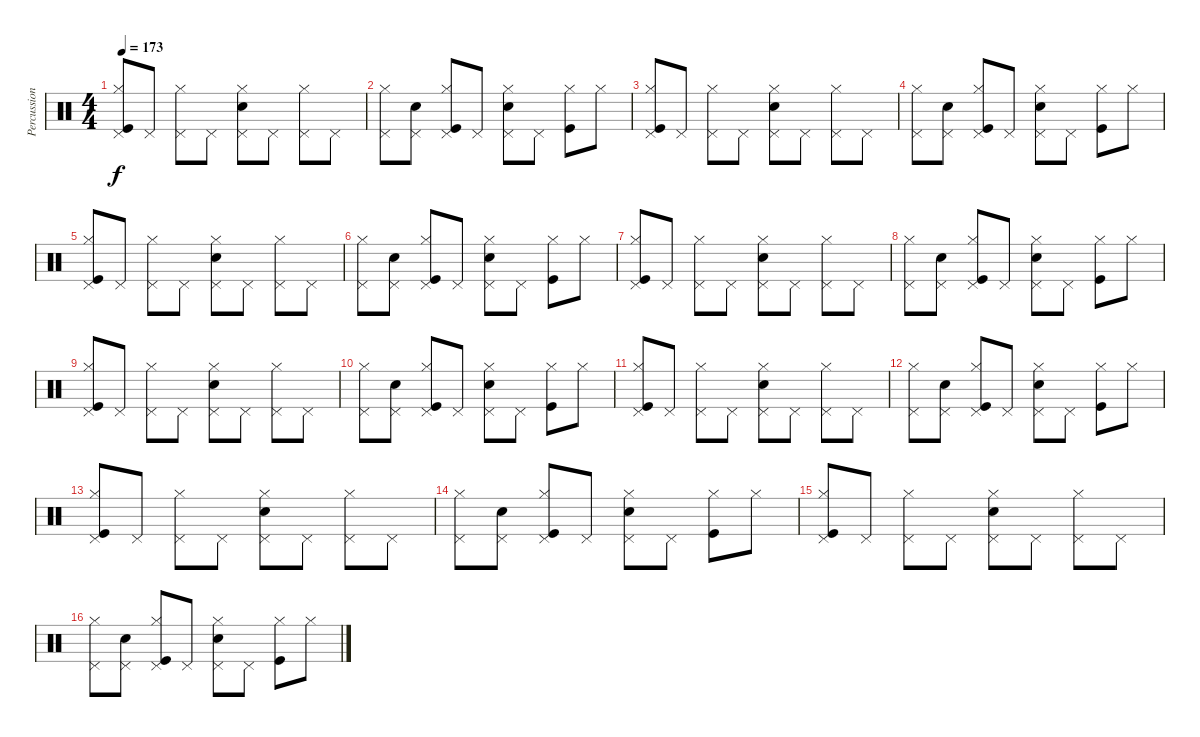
\track ("Percussion" "Percussion") {instrument percussion}
\staff {score}
\articulation defaults
\ts (4 4)
\tempo 173
\clef neutral
\ks c
("Kick (hit)" "Hi-Hat (closed)" "Pedal Hi-Hat (hit)").8{dy f} "Pedal Hi-Hat (hit)".8 ("Hi-Hat (closed)" "Pedal Hi-Hat (hit)").8 "Pedal Hi-Hat (hit)".8 ("Snare (hit) 2" "Hi-Hat (closed)" "Pedal Hi-Hat (hit)").8 "Pedal Hi-Hat (hit)".8 ("Hi-Hat (closed)" "Pedal Hi-Hat (hit)").8 "Pedal Hi-Hat (hit)".8 |
("Hi-Hat (closed)" "Pedal Hi-Hat (hit)").8 ("Snare (hit) 2" "Pedal Hi-Hat (hit)").8 ("Kick (hit)" "Hi-Hat (closed)" "Pedal Hi-Hat (hit)").8 "Pedal Hi-Hat (hit)".8 ("Snare (hit) 2" "Hi-Hat (closed)" "Pedal Hi-Hat (hit)").8 "Pedal Hi-Hat (hit)".8 ("Kick (hit)" "Hi-Hat (closed)").8 "Hi-Hat (closed)".8 |
("Kick (hit)" "Hi-Hat (closed)" "Pedal Hi-Hat (hit)").8 "Pedal Hi-Hat (hit)".8 ("Hi-Hat (closed)" "Pedal Hi-Hat (hit)").8 "Pedal Hi-Hat (hit)".8 ("Snare (hit) 2" "Hi-Hat (closed)" "Pedal Hi-Hat (hit)").8 "Pedal Hi-Hat (hit)".8 ("Hi-Hat (closed)" "Pedal Hi-Hat (hit)").8 "Pedal Hi-Hat (hit)".8 |
("Hi-Hat (closed)" "Pedal Hi-Hat (hit)").8 ("Snare (hit) 2" "Pedal Hi-Hat (hit)").8 ("Kick (hit)" "Hi-Hat (closed)" "Pedal Hi-Hat (hit)").8 "Pedal Hi-Hat (hit)".8 ("Snare (hit) 2" "Hi-Hat (closed)" "Pedal Hi-Hat (hit)").8 "Pedal Hi-Hat (hit)".8 ("Kick (hit)" "Hi-Hat (closed)").8 "Hi-Hat (closed)".8 |
("Kick (hit)" "Hi-Hat (closed)" "Pedal Hi-Hat (hit)").8 "Pedal Hi-Hat (hit)".8 ("Hi-Hat (closed)" "Pedal Hi-Hat (hit)").8 "Pedal Hi-Hat (hit)".8 ("Snare (hit) 2" "Hi-Hat (closed)" "Pedal Hi-Hat (hit)").8 "Pedal Hi-Hat (hit)".8 ("Hi-Hat (closed)" "Pedal Hi-Hat (hit)").8 "Pedal Hi-Hat (hit)".8 |
("Hi-Hat (closed)" "Pedal Hi-Hat (hit)").8 ("Snare (hit) 2" "Pedal Hi-Hat (hit)").8 ("Kick (hit)" "Hi-Hat (closed)" "Pedal Hi-Hat (hit)").8 "Pedal Hi-Hat (hit)".8 ("Snare (hit) 2" "Hi-Hat (closed)" "Pedal Hi-Hat (hit)").8 "Pedal Hi-Hat (hit)".8 ("Kick (hit)" "Hi-Hat (closed)").8 "Hi-Hat (closed)".8 |
("Kick (hit)" "Hi-Hat (closed)" "Pedal Hi-Hat (hit)").8 "Pedal Hi-Hat (hit)".8 ("Hi-Hat (closed)" "Pedal Hi-Hat (hit)").8 "Pedal Hi-Hat (hit)".8 ("Snare (hit) 2" "Hi-Hat (closed)" "Pedal Hi-Hat (hit)").8 "Pedal Hi-Hat (hit)".8 ("Hi-Hat (closed)" "Pedal Hi-Hat (hit)").8 "Pedal Hi-Hat (hit)".8 |
("Hi-Hat (closed)" "Pedal Hi-Hat (hit)").8 ("Snare (hit) 2" "Pedal Hi-Hat (hit)").8 ("Kick (hit)" "Hi-Hat (closed)" "Pedal Hi-Hat (hit)").8 "Pedal Hi-Hat (hit)".8 ("Snare (hit) 2" "Hi-Hat (closed)" "Pedal Hi-Hat (hit)").8 "Pedal Hi-Hat (hit)".8 ("Kick (hit)" "Hi-Hat (closed)").8 "Hi-Hat (closed)".8 |
("Kick (hit)" "Hi-Hat (closed)" "Pedal Hi-Hat (hit)").8 "Pedal Hi-Hat (hit)".8 ("Hi-Hat (closed)" "Pedal Hi-Hat (hit)").8 "Pedal Hi-Hat (hit)".8 ("Snare (hit) 2" "Hi-Hat (closed)" "Pedal Hi-Hat (hit)").8 "Pedal Hi-Hat (hit)".8 ("Hi-Hat (closed)" "Pedal Hi-Hat (hit)").8 "Pedal Hi-Hat (hit)".8 |
("Hi-Hat (closed)" "Pedal Hi-Hat (hit)").8 ("Snare (hit) 2" "Pedal Hi-Hat (hit)").8 ("Kick (hit)" "Hi-Hat (closed)" "Pedal Hi-Hat (hit)").8 "Pedal Hi-Hat (hit)".8 ("Snare (hit) 2" "Hi-Hat (closed)" "Pedal Hi-Hat (hit)").8 "Pedal Hi-Hat (hit)".8 ("Kick (hit)" "Hi-Hat (closed)").8 "Hi-Hat (closed)".8 |
("Kick (hit)" "Hi-Hat (closed)" "Pedal Hi-Hat (hit)").8 "Pedal Hi-Hat (hit)".8 ("Hi-Hat (closed)" "Pedal Hi-Hat (hit)").8 "Pedal Hi-Hat (hit)".8 ("Snare (hit) 2" "Hi-Hat (closed)" "Pedal Hi-Hat (hit)").8 "Pedal Hi-Hat (hit)".8 ("Hi-Hat (closed)" "Pedal Hi-Hat (hit)").8 "Pedal Hi-Hat (hit)".8 |
("Hi-Hat (closed)" "Pedal Hi-Hat (hit)").8 ("Snare (hit) 2" "Pedal Hi-Hat (hit)").8 ("Kick (hit)" "Hi-Hat (closed)" "Pedal Hi-Hat (hit)").8 "Pedal Hi-Hat (hit)".8 ("Snare (hit) 2" "Hi-Hat (closed)" "Pedal Hi-Hat (hit)").8 "Pedal Hi-Hat (hit)".8 ("Kick (hit)" "Hi-Hat (closed)").8 "Hi-Hat (closed)".8 |
("Kick (hit)" "Hi-Hat (closed)" "Pedal Hi-Hat (hit)").8 "Pedal Hi-Hat (hit)".8 ("Hi-Hat (closed)" "Pedal Hi-Hat (hit)").8 "Pedal Hi-Hat (hit)".8 ("Snare (hit) 2" "Hi-Hat (closed)" "Pedal Hi-Hat (hit)").8 "Pedal Hi-Hat (hit)".8 ("Hi-Hat (closed)" "Pedal Hi-Hat (hit)").8 "Pedal Hi-Hat (hit)".8 |
("Hi-Hat (closed)" "Pedal Hi-Hat (hit)").8 ("Snare (hit) 2" "Pedal Hi-Hat (hit)").8 ("Kick (hit)" "Hi-Hat (closed)" "Pedal Hi-Hat (hit)").8 "Pedal Hi-Hat (hit)".8 ("Snare (hit) 2" "Hi-Hat (closed)" "Pedal Hi-Hat (hit)").8 "Pedal Hi-Hat (hit)".8 ("Kick (hit)" "Hi-Hat (closed)").8 "Hi-Hat (closed)".8 |
("Kick (hit)" "Hi-Hat (closed)" "Pedal Hi-Hat (hit)").8 "Pedal Hi-Hat (hit)".8 ("Hi-Hat (closed)" "Pedal Hi-Hat (hit)").8 "Pedal Hi-Hat (hit)".8 ("Snare (hit) 2" "Hi-Hat (closed)" "Pedal Hi-Hat (hit)").8 "Pedal Hi-Hat (hit)".8 ("Hi-Hat (closed)" "Pedal Hi-Hat (hit)").8 "Pedal Hi-Hat (hit)".8 |
("Hi-Hat (closed)" "Pedal Hi-Hat (hit)").8 ("Snare (hit) 2" "Pedal Hi-Hat (hit)").8 ("Kick (hit)" "Hi-Hat (closed)" "Pedal Hi-Hat (hit)").8 "Pedal Hi-Hat (hit)".8 ("Snare (hit) 2" "Hi-Hat (closed)" "Pedal Hi-Hat (hit)").8 "Pedal Hi-Hat (hit)".8 ("Kick (hit)" "Hi-Hat (closed)").8 "Hi-Hat (closed)".8
